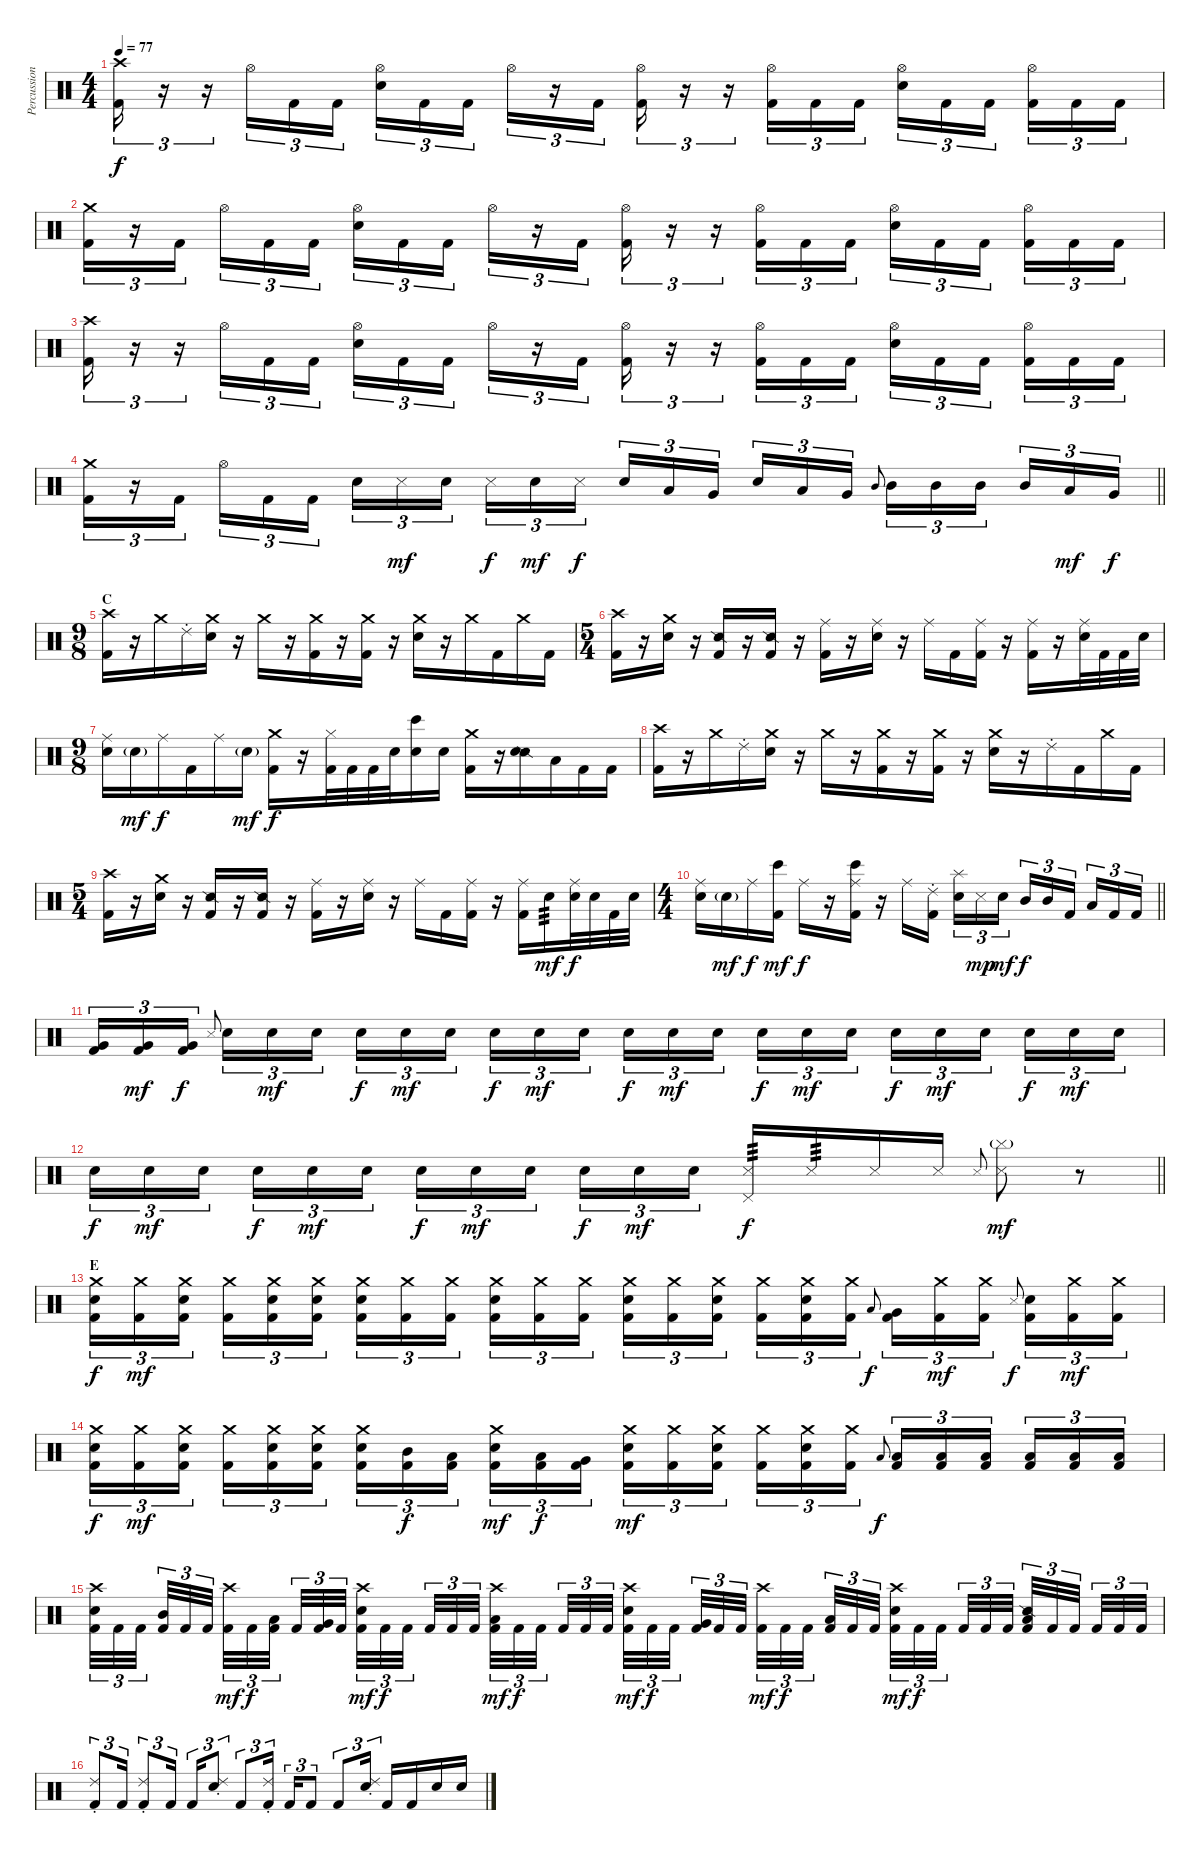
\track ("Percussion" "Percussion") {instrument percussion}
\staff {score}
\articulation defaults
\ts (4 4)
\tempo 77
\clef neutral
\ks c
("Crash high (hit)" "Kick (hit) 2").16{tu (3 2) dy f} r.16{tu (3 2)} r.16{tu (3 2)} "Hi-Hat (open)".16{tu (3 2)} "Kick (hit) 2".16{tu (3 2)} "Kick (hit) 2".16{tu (3 2)} ("Hi-Hat (open)" "Snare (hit) 2").16{tu (3 2)} "Kick (hit) 2".16{tu (3 2)} "Kick (hit) 2".16{tu (3 2) beam splitsecondary} "Hi-Hat (open)".16{tu (3 2)} r.16{tu (3 2)} "Kick (hit) 2".16{tu (3 2)} ("Hi-Hat (open)" "Kick (hit) 2").16{tu (3 2)} r.16{tu (3 2)} r.16{tu (3 2)} ("Hi-Hat (open)" "Kick (hit) 2").16{tu (3 2)} "Kick (hit) 2".16{tu (3 2)} "Kick (hit) 2".16{tu (3 2)} ("Hi-Hat (open)" "Snare (hit) 2").16{tu (3 2)} "Kick (hit) 2".16{tu (3 2)} "Kick (hit) 2".16{tu (3 2) beam splitsecondary} ("Hi-Hat (open)" "Kick (hit) 2").16{tu (3 2)} "Kick (hit) 2".16{tu (3 2)} "Kick (hit) 2".16{tu (3 2)} |
("Crash medium (hit)" "Kick (hit) 2").16{tu (3 2)} r.16{tu (3 2)} "Kick (hit) 2".16{tu (3 2) beam splitsecondary} "Hi-Hat (open)".16{tu (3 2)} "Kick (hit) 2".16{tu (3 2)} "Kick (hit) 2".16{tu (3 2)} ("Hi-Hat (open)" "Snare (hit) 2").16{tu (3 2)} "Kick (hit) 2".16{tu (3 2)} "Kick (hit) 2".16{tu (3 2) beam splitsecondary} "Hi-Hat (open)".16{tu (3 2)} r.16{tu (3 2)} "Kick (hit) 2".16{tu (3 2)} ("Hi-Hat (open)" "Kick (hit) 2").16{tu (3 2)} r.16{tu (3 2)} r.16{tu (3 2)} ("Hi-Hat (open)" "Kick (hit) 2").16{tu (3 2)} "Kick (hit) 2".16{tu (3 2)} "Kick (hit) 2".16{tu (3 2)} ("Hi-Hat (open)" "Snare (hit) 2").16{tu (3 2)} "Kick (hit) 2".16{tu (3 2)} "Kick (hit) 2".16{tu (3 2) beam splitsecondary} ("Hi-Hat (open)" "Kick (hit) 2").16{tu (3 2)} "Kick (hit) 2".16{tu (3 2)} "Kick (hit) 2".16{tu (3 2)} |
("Crash high (hit)" "Kick (hit) 2").16{tu (3 2)} r.16{tu (3 2)} r.16{tu (3 2)} "Hi-Hat (open)".16{tu (3 2)} "Kick (hit) 2".16{tu (3 2)} "Kick (hit) 2".16{tu (3 2)} ("Hi-Hat (open)" "Snare (hit) 2").16{tu (3 2)} "Kick (hit) 2".16{tu (3 2)} "Kick (hit) 2".16{tu (3 2) beam splitsecondary} "Hi-Hat (open)".16{tu (3 2)} r.16{tu (3 2)} "Kick (hit) 2".16{tu (3 2)} ("Hi-Hat (open)" "Kick (hit) 2").16{tu (3 2)} r.16{tu (3 2)} r.16{tu (3 2)} ("Hi-Hat (open)" "Kick (hit) 2").16{tu (3 2)} "Kick (hit) 2".16{tu (3 2)} "Kick (hit) 2".16{tu (3 2)} ("Hi-Hat (open)" "Snare (hit) 2").16{tu (3 2)} "Kick (hit) 2".16{tu (3 2)} "Kick (hit) 2".16{tu (3 2) beam splitsecondary} ("Hi-Hat (open)" "Kick (hit) 2").16{tu (3 2)} "Kick (hit) 2".16{tu (3 2)} "Kick (hit) 2".16{tu (3 2)} |
\barLineRight lightlight
("Crash medium (hit)" "Kick (hit) 2").16{tu (3 2)} r.16{tu (3 2)} "Kick (hit) 2".16{tu (3 2) beam splitsecondary} "Hi-Hat (open)".16{tu (3 2)} "Kick (hit) 2".16{tu (3 2)} "Kick (hit) 2".16{tu (3 2)} "Snare (hit) 2".16{tu (3 2)} "Metronome (hit)".16{tu (3 2) dy mf} "Snare (hit) 2".16{tu (3 2) beam splitsecondary} "Metronome (hit)".16{tu (3 2) dy f} "Snare (hit) 2".16{tu (3 2) dy mf} "Metronome (hit)".16{tu (3 2) dy f} "Snare (hit) 2".16{tu (3 2)} "Low Tom (hit)".16{tu (3 2)} "Very Low Tom (hit)".16{tu (3 2) beam splitsecondary} "Snare (hit) 2".16{tu (3 2)} "Low Tom (hit)".16{tu (3 2)} "Very Low Tom (hit)".16{tu (3 2)} "Mid Tom (hit)".8{gr onbeat} "Mid Tom (hit)".16{tu (3 2)} "Mid Tom (hit)".16{tu (3 2)} "Mid Tom (hit)".16{tu (3 2) beam splitsecondary} "Mid Tom (hit)".16{tu (3 2)} "Low Tom (hit)".16{tu (3 2) dy mf} "Very Low Tom (hit)".16{tu (3 2) dy f} |
\ts (9 8)
\section ("" "C")
("Crash high (hit)" "Kick (hit) 2").16 r.16 "Crash medium (hit)".16 "Ride (choke) 2".16 ("Crash medium (hit)" "Snare (hit) 2").16 r.16 "Crash medium (hit)".16 r.16 ("Crash medium (hit)" "Kick (hit) 2").16 r.16 ("Crash medium (hit)" "Kick (hit) 2").16 r.16 ("Crash medium (hit)" "Snare (hit) 2").16 r.16 "Crash medium (hit)".16 "Kick (hit) 2".16 "Crash medium (hit)".16 "Kick (hit) 2".16 |
\ts (5 4)
("Crash high (hit)" "Kick (hit) 2").16 r.16 ("Crash medium (hit)" "Snare (hit) 2").16 r.16 ("Snare (side stick) 2" "Kick (hit) 2").16 r.16 ("Snare (side stick) 2" "Kick (hit) 2").16 r.16 ("Ride (middle)" "Kick (hit) 2").16 r.16 ("Ride (middle)" "Snare (hit) 2").16 r.16 "Ride (middle)".16 "Kick (hit) 2".16 ("Ride (middle)" "Kick (hit) 2").16 r.16 ("Ride (middle)" "Kick (hit) 2").16 r.16 ("Ride (middle)" "Snare (hit) 2").32 "Kick (hit) 2".32 "Kick (hit) 2".32 "Snare (hit) 2".32 |
\ts (9 8)
("Ride (middle)" "Snare (hit) 2").16 "Snare (hit) 2"{g}.16{dy mf} "Ride (middle)".16{dy f} "Kick (hit) 2".16 "Ride (middle)".16 "Snare (hit) 2"{g}.16{dy mf} ("Crash medium (hit)" "Kick (hit) 2").16{dy f} r.16 ("Hi-Hat (closed)" "Kick (hit) 2").32 "Kick (hit) 2".32 "Kick (hit) 2".32 "Snare (hit) 2".32 ("Bongo High (hit)" "Snare (hit) 2").16 "Snare (hit) 2".16 ("Crash medium (hit)" "Kick (hit) 2").16 r.16 ("Snare (side stick) 2" "Snare (hit) 2").16 "Low Tom (hit)".16 "Kick (hit) 2".16 "Kick (hit) 2".16 |
("Crash high (hit)" "Kick (hit) 2").16 r.16 "Crash medium (hit)".16 "Ride (choke) 2".16 ("Crash medium (hit)" "Snare (hit) 2").16 r.16 "Crash medium (hit)".16 r.16 ("Crash medium (hit)" "Kick (hit) 2").16 r.16 ("Crash medium (hit)" "Kick (hit) 2").16 r.16 ("Crash medium (hit)" "Snare (hit) 2").16 r.16 "Ride (choke) 2".16 "Kick (hit) 2".16 "Crash medium (hit)".16 "Kick (hit) 2".16 |
\ts (5 4)
("Crash high (hit)" "Kick (hit) 2").16 r.16 ("Crash medium (hit)" "Snare (hit) 2").16 r.16 ("Snare (side stick) 2" "Kick (hit) 2").16 r.16 ("Snare (side stick) 2" "Kick (hit) 2").16 r.16 ("Ride (middle)" "Kick (hit) 2").16 r.16 ("Ride (middle)" "Snare (hit) 2").16 r.16 "Ride (middle)".16 "Kick (hit) 2".16 ("Ride (middle)" "Kick (hit) 2").16 r.16 ("Ride (middle)" "Kick (hit) 2").16 "Snare (hit) 2".16{tp 3 dy mf} ("Ride (middle)" "Snare (hit) 2").32{dy f} "Snare (hit) 2".32 "Kick (hit) 2".32 "Snare (hit) 2".32 |
\ts (4 4)
\barLineRight lightlight
("Ride (middle)" "Snare (hit) 2").16 "Snare (hit) 2"{g}.16{dy mf} "Ride (middle)".16{dy f} ("Bongo High (hit)" "Kick (hit) 2").16{dy mf} "Ride (middle)".16{dy f} r.16 ("Ride (middle)" "Bongo High (hit)" "Kick (hit) 2").16 r.16 "Ride (middle)".16 ("Ride (choke) 2" "Kick (hit) 2").16{beam splitsecondary} ("Splash (hit)" "Snare (hit) 2").16{tu (3 2)} "Metronome (hit)".16{tu (3 2) dy mp} "Snare (hit) 2".16{tu (3 2) dy mf} "Mid Tom (hit)".16{tu (3 2) dy f} "Mid Tom (hit)".16{tu (3 2)} "Kick (hit) 2".16{tu (3 2) beam splitsecondary} "Low Tom (hit)".16{tu (3 2)} "Kick (hit) 2".16{tu (3 2)} "Kick (hit) 2".16{tu (3 2)} |
("Very Low Tom (hit)" "Kick (hit) 2").16{tu (3 2)} ("Very Low Tom (hit)" "Kick (hit) 2").16{tu (3 2) dy mf} ("Very Low Tom (hit)" "Kick (hit) 2").16{tu (3 2) dy f} "Metronome (hit)".8{gr onbeat beam splitsecondary} "Snare (hit) 2".16{tu (3 2)} "Electric Snare (hit)".16{tu (3 2) dy mf} "Electric Snare (hit)".16{tu (3 2)} "Electric Snare (hit)".16{tu (3 2) dy f} "Electric Snare (hit)".16{tu (3 2) dy mf} "Electric Snare (hit)".16{tu (3 2) beam splitsecondary} "Electric Snare (hit)".16{tu (3 2) dy f} "Electric Snare (hit)".16{tu (3 2) dy mf} "Electric Snare (hit)".16{tu (3 2)} "Electric Snare (hit)".16{tu (3 2) dy f} "Electric Snare (hit)".16{tu (3 2) dy mf} "Electric Snare (hit)".16{tu (3 2) beam splitsecondary} "Electric Snare (hit)".16{tu (3 2) dy f} "Electric Snare (hit)".16{tu (3 2) dy mf} "Electric Snare (hit)".16{tu (3 2)} "Electric Snare (hit)".16{tu (3 2) dy f} "Electric Snare (hit)".16{tu (3 2) dy mf} "Electric Snare (hit)".16{tu (3 2) beam splitsecondary} "Electric Snare (hit)".16{tu (3 2) dy f} "Electric Snare (hit)".16{tu (3 2) dy mf} "Electric Snare (hit)".16{tu (3 2)} |
\barLineRight lightlight "Electric Snare (hit)".16{tu (3 2) dy f} "Electric Snare (hit)".16{tu (3 2) dy mf} "Electric Snare (hit)".16{tu (3 2) beam splitsecondary} "Electric Snare (hit)".16{tu (3 2) dy f} "Electric Snare (hit)".16{tu (3 2) dy mf} "Electric Snare (hit)".16{tu (3 2)} "Electric Snare (hit)".16{tu (3 2) dy f} "Electric Snare (hit)".16{tu (3 2) dy mf} "Electric Snare (hit)".16{tu (3 2) beam splitsecondary} "Electric Snare (hit)".16{tu (3 2) dy f} "Electric Snare (hit)".16{tu (3 2) dy mf} "Electric Snare (hit)".16{tu (3 2)}
("Pedal Hi-Hat (hit)" "Snare (side stick) 3").16{tp 3 dy f} "Snare (side stick) 3".16{tp 3} "Snare (side stick) 3".16 "Snare (side stick) 3".16 "Snare (side stick) 3".8{gr onbeat} ("Cymbal (hit)"{g} "Snare (side stick) 3").8{dy mf} r.8 |
\section ("" "E")
("Crash medium (hit)" "Snare (hit) 2" "Kick (hit) 2").16{tu (3 2) dy f} ("Crash medium (hit)" "Kick (hit) 2").16{tu (3 2) dy mf} ("Crash medium (hit)" "Snare (hit) 2" "Kick (hit) 2").16{tu (3 2) beam splitsecondary} ("Crash medium (hit)" "Kick (hit) 2").16{tu (3 2)} ("Crash medium (hit)" "Snare (hit) 2" "Kick (hit) 2").16{tu (3 2)} ("Crash medium (hit)" "Snare (hit) 2" "Kick (hit) 2").16{tu (3 2)} ("Crash medium (hit)" "Snare (hit) 2" "Kick (hit) 2").16{tu (3 2)} ("Crash medium (hit)" "Kick (hit) 2").16{tu (3 2)} ("Crash medium (hit)" "Kick (hit) 2").16{tu (3 2) beam splitsecondary} ("Crash medium (hit)" "Snare (hit) 2" "Kick (hit) 2").16{tu (3 2)} ("Crash medium (hit)" "Kick (hit) 2").16{tu (3 2)} ("Crash medium (hit)" "Kick (hit) 2").16{tu (3 2)} ("Crash medium (hit)" "Snare (hit) 2" "Kick (hit) 2").16{tu (3 2)} ("Crash medium (hit)" "Kick (hit) 2").16{tu (3 2)} ("Crash medium (hit)" "Snare (hit) 2" "Kick (hit) 2").16{tu (3 2) beam splitsecondary} ("Crash medium (hit)" "Kick (hit) 2").16{tu (3 2)} ("Crash medium (hit)" "Snare (hit) 2" "Kick (hit) 2").16{tu (3 2)} ("Crash medium (hit)" "Kick (hit) 2").16{tu (3 2)} "Low Tom (hit)".8{gr onbeat dy f} ("Very Low Tom (hit)" "Kick (hit) 2").16{tu (3 2)} ("Crash medium (hit)" "Kick (hit) 2").16{tu (3 2) dy mf} ("Crash medium (hit)" "Kick (hit) 2").16{tu (3 2)} "Metronome (hit)".8{gr onbeat dy f beam splitsecondary} ("Snare (hit) 2" "Kick (hit) 2").16{tu (3 2)} ("Crash medium (hit)" "Kick (hit) 2").16{tu (3 2) dy mf} ("Crash medium (hit)" "Kick (hit) 2").16{tu (3 2)} |
("Crash medium (hit)" "Snare (hit) 2" "Kick (hit) 2").16{tu (3 2) dy f} ("Crash medium (hit)" "Kick (hit) 2").16{tu (3 2) dy mf} ("Crash medium (hit)" "Snare (hit) 2" "Kick (hit) 2").16{tu (3 2) beam splitsecondary} ("Crash medium (hit)" "Kick (hit) 2").16{tu (3 2)} ("Crash medium (hit)" "Snare (hit) 2" "Kick (hit) 2").16{tu (3 2)} ("Crash medium (hit)" "Snare (hit) 2" "Kick (hit) 2").16{tu (3 2)} ("Crash medium (hit)" "Snare (hit) 2" "Kick (hit) 2").16{tu (3 2)} ("Mid Tom (hit)" "Kick (hit) 2").16{tu (3 2) dy f} ("Low Tom (hit)" "Kick (hit) 2").16{tu (3 2) beam splitsecondary} ("Crash medium (hit)" "Snare (hit) 2" "Kick (hit) 2").16{tu (3 2) dy mf} ("Low Tom (hit)" "Kick (hit) 2").16{tu (3 2) dy f} ("Very Low Tom (hit)" "Kick (hit) 2").16{tu (3 2)} ("Crash medium (hit)" "Snare (hit) 2" "Kick (hit) 2").16{tu (3 2) dy mf} ("Crash medium (hit)" "Kick (hit) 2").16{tu (3 2)} ("Crash medium (hit)" "Snare (hit) 2" "Kick (hit) 2").16{tu (3 2) beam splitsecondary} ("Crash medium (hit)" "Kick (hit) 2").16{tu (3 2)} ("Crash medium (hit)" "Snare (hit) 2" "Kick (hit) 2").16{tu (3 2)} ("Crash medium (hit)" "Kick (hit) 2").16{tu (3 2)} "Low Tom (hit)".8{gr onbeat dy f} ("Low Tom (hit)" "Kick (hit) 2").16{tu (3 2)} ("Low Tom (hit)" "Kick (hit) 2").16{tu (3 2)} ("Low Tom (hit)" "Kick (hit) 2").16{tu (3 2) beam splitsecondary} ("Low Tom (hit)" "Kick (hit) 2").16{tu (3 2)} ("Low Tom (hit)" "Kick (hit) 2").16{tu (3 2)} ("Low Tom (hit)" "Kick (hit) 2").16{tu (3 2)} |
("Crash high (hit)" "Snare (hit) 2" "Kick (hit) 2").32{tu (3 2)} "Kick (hit) 2".32{tu (3 2)} "Kick (hit) 2".32{tu (3 2) beam splitsecondary} ("Mid Tom (hit)" "Kick (hit) 2").32{tu (3 2)} "Kick (hit) 2".32{tu (3 2)} "Kick (hit) 2".32{tu (3 2) beam splitsecondary} ("Crash high (hit)" "Kick (hit) 2").32{tu (3 2) dy mf} "Kick (hit) 2".32{tu (3 2) dy f} ("Low Tom (hit)" "Kick (hit) 2").32{tu (3 2) beam splitsecondary} "Kick (hit) 2".32{tu (3 2)} ("Very Low Tom (hit)" "Kick (hit) 2").32{tu (3 2)} "Kick (hit) 2".32{tu (3 2)} ("Crash high (hit)" "Snare (hit) 2" "Kick (hit) 2").32{tu (3 2) dy mf} "Kick (hit) 2".32{tu (3 2) dy f} "Kick (hit) 2".32{tu (3 2) beam splitsecondary} "Kick (hit) 2".32{tu (3 2)} "Kick (hit) 2".32{tu (3 2)} "Kick (hit) 2".32{tu (3 2) beam splitsecondary} ("Crash high (hit)" "Low Tom (hit)" "Kick (hit) 2").32{tu (3 2) dy mf} "Kick (hit) 2".32{tu (3 2) dy f} "Kick (hit) 2".32{tu (3 2) beam splitsecondary} "Kick (hit) 2".32{tu (3 2)} "Kick (hit) 2".32{tu (3 2)} "Kick (hit) 2".32{tu (3 2)} ("Crash high (hit)" "Snare (hit) 2" "Kick (hit) 2").32{tu (3 2) dy mf} "Kick (hit) 2".32{tu (3 2) dy f} "Kick (hit) 2".32{tu (3 2) beam splitsecondary} ("Very Low Tom (hit)" "Kick (hit) 2").32{tu (3 2)} "Kick (hit) 2".32{tu (3 2)} "Kick (hit) 2".32{tu (3 2) beam splitsecondary} ("Crash high (hit)" "Kick (hit) 2").32{tu (3 2) dy mf} "Kick (hit) 2".32{tu (3 2) dy f} "Kick (hit) 2".32{tu (3 2) beam splitsecondary} ("Low Tom (hit)" "Kick (hit) 2").32{tu (3 2)} "Kick (hit) 2".32{tu (3 2)} "Kick (hit) 2".32{tu (3 2)} ("Crash high (hit)" "Snare (hit) 2" "Kick (hit) 2").32{tu (3 2) dy mf} "Kick (hit) 2".32{tu (3 2) dy f} "Kick (hit) 2".32{tu (3 2) beam splitsecondary} "Kick (hit) 2".32{tu (3 2)} "Kick (hit) 2".32{tu (3 2)} "Kick (hit) 2".32{tu (3 2) beam splitsecondary} ("Snare (side stick) 2" "Low Floor Tom (hit)" "Kick (hit) 2").32{tu (3 2)} "Kick (hit) 2".32{tu (3 2)} "Kick (hit) 2".32{tu (3 2) beam splitsecondary} "Kick (hit) 2".32{tu (3 2)} "Kick (hit) 2".32{tu (3 2)} "Kick (hit) 2".32{tu (3 2)} |
("Ride (choke) 2" "Kick (hit) 2").8{tu (3 2)} "Kick (hit) 2".16{tu (3 2)} ("Ride (choke) 2" "Kick (hit) 2").8{tu (3 2)} "Kick (hit) 2".16{tu (3 2)} "Kick (hit) 2".16{tu (3 2)} ("Ride (choke) 2" "Snare (hit) 2").8{tu (3 2)} "Kick (hit) 2".8{tu (3 2)} ("Ride (choke) 2" "Kick (hit) 2").16{tu (3 2)} "Kick (hit) 2".16{tu (3 2)} "Kick (hit) 2".8{tu (3 2)} "Kick (hit) 2".8{tu (3 2)} ("Ride (choke) 2" "Snare (hit) 2").16{tu (3 2)} "Kick (hit) 2".16 "Kick (hit) 2".16 "Snare (hit) 2".16 "Snare (hit) 2".16
